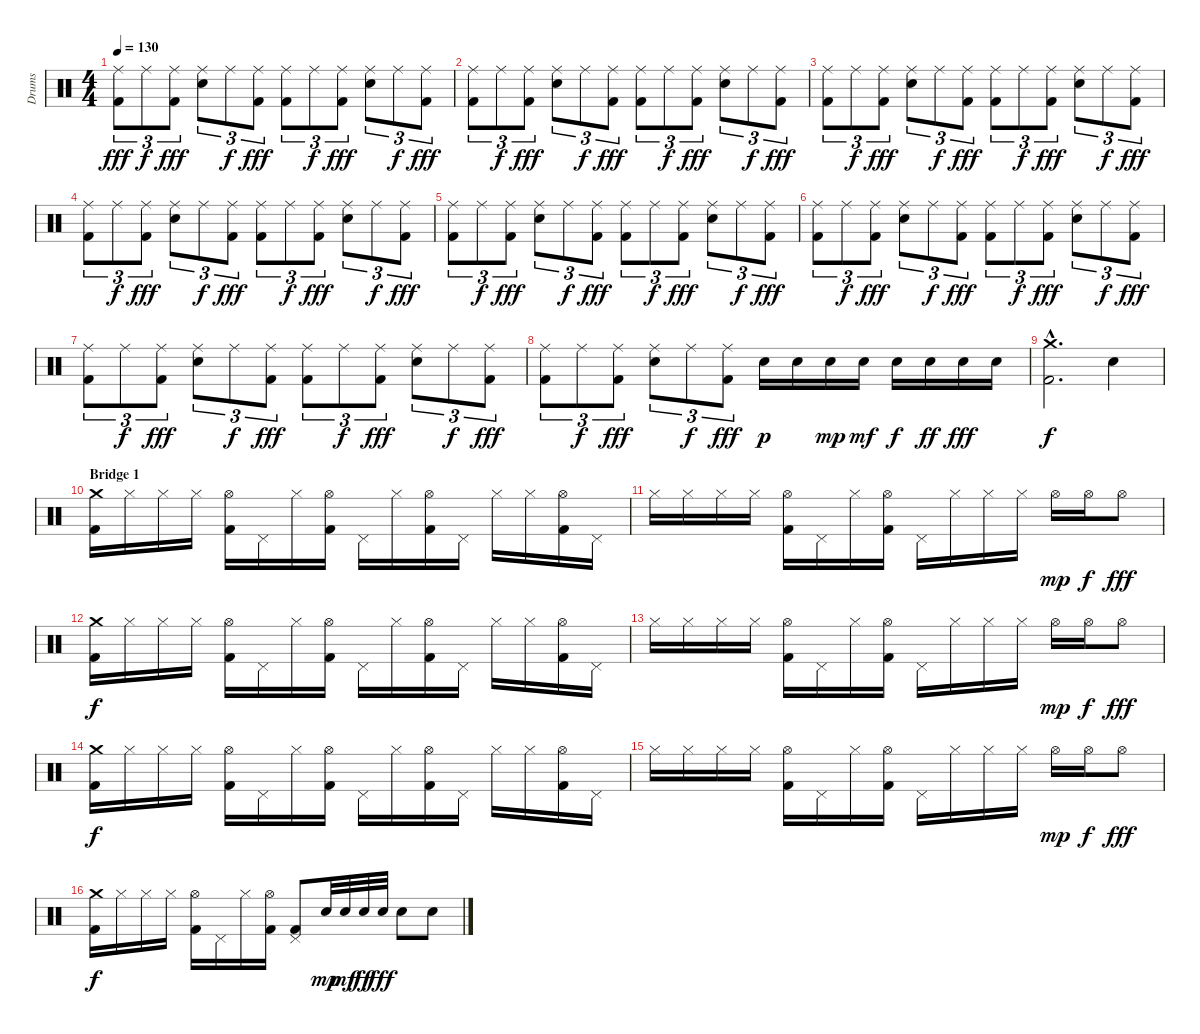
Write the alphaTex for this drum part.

\track ("Drums" "Drums") {instrument percussion}
\staff {score}
\articulation defaults
\ts (4 4)
\tempo 130
\clef neutral
\ks c
("Ride (middle)" "Kick (hit) 2").8{tu (3 2) dy fff} "Ride (middle)".8{tu (3 2) dy f} ("Ride (middle)" "Kick (hit) 2").8{tu (3 2) dy fff} ("Ride (middle)" "Snare (hit) 2").8{tu (3 2)} "Ride (middle)".8{tu (3 2) dy f} ("Ride (middle)" "Kick (hit) 2").8{tu (3 2) dy fff} ("Ride (middle)" "Kick (hit) 2").8{tu (3 2)} "Ride (middle)".8{tu (3 2) dy f} ("Ride (middle)" "Kick (hit) 2").8{tu (3 2) dy fff} ("Ride (middle)" "Snare (hit) 2").8{tu (3 2)} "Ride (middle)".8{tu (3 2) dy f} ("Ride (middle)" "Kick (hit) 2").8{tu (3 2) dy fff} |
("Ride (middle)" "Kick (hit) 2").8{tu (3 2)} "Ride (middle)".8{tu (3 2) dy f} ("Ride (middle)" "Kick (hit) 2").8{tu (3 2) dy fff} ("Ride (middle)" "Snare (hit) 2").8{tu (3 2)} "Ride (middle)".8{tu (3 2) dy f} ("Ride (middle)" "Kick (hit) 2").8{tu (3 2) dy fff} ("Ride (middle)" "Kick (hit) 2").8{tu (3 2)} "Ride (middle)".8{tu (3 2) dy f} ("Ride (middle)" "Kick (hit) 2").8{tu (3 2) dy fff} ("Ride (middle)" "Snare (hit) 2").8{tu (3 2)} "Ride (middle)".8{tu (3 2) dy f} ("Ride (middle)" "Kick (hit) 2").8{tu (3 2) dy fff} |
("Ride (middle)" "Kick (hit) 2").8{tu (3 2)} "Ride (middle)".8{tu (3 2) dy f} ("Ride (middle)" "Kick (hit) 2").8{tu (3 2) dy fff} ("Ride (middle)" "Snare (hit) 2").8{tu (3 2)} "Ride (middle)".8{tu (3 2) dy f} ("Ride (middle)" "Kick (hit) 2").8{tu (3 2) dy fff} ("Ride (middle)" "Kick (hit) 2").8{tu (3 2)} "Ride (middle)".8{tu (3 2) dy f} ("Ride (middle)" "Kick (hit) 2").8{tu (3 2) dy fff} ("Ride (middle)" "Snare (hit) 2").8{tu (3 2)} "Ride (middle)".8{tu (3 2) dy f} ("Ride (middle)" "Kick (hit) 2").8{tu (3 2) dy fff} |
("Ride (middle)" "Kick (hit) 2").8{tu (3 2)} "Ride (middle)".8{tu (3 2) dy f} ("Ride (middle)" "Kick (hit) 2").8{tu (3 2) dy fff} ("Ride (middle)" "Snare (hit) 2").8{tu (3 2)} "Ride (middle)".8{tu (3 2) dy f} ("Ride (middle)" "Kick (hit) 2").8{tu (3 2) dy fff} ("Ride (middle)" "Kick (hit) 2").8{tu (3 2)} "Ride (middle)".8{tu (3 2) dy f} ("Ride (middle)" "Kick (hit) 2").8{tu (3 2) dy fff} ("Ride (middle)" "Snare (hit) 2").8{tu (3 2)} "Ride (middle)".8{tu (3 2) dy f} ("Ride (middle)" "Kick (hit) 2").8{tu (3 2) dy fff} |
("Ride (middle)" "Kick (hit) 2").8{tu (3 2)} "Ride (middle)".8{tu (3 2) dy f} ("Ride (middle)" "Kick (hit) 2").8{tu (3 2) dy fff} ("Ride (middle)" "Snare (hit) 2").8{tu (3 2)} "Ride (middle)".8{tu (3 2) dy f} ("Ride (middle)" "Kick (hit) 2").8{tu (3 2) dy fff} ("Ride (middle)" "Kick (hit) 2").8{tu (3 2)} "Ride (middle)".8{tu (3 2) dy f} ("Ride (middle)" "Kick (hit) 2").8{tu (3 2) dy fff} ("Ride (middle)" "Snare (hit) 2").8{tu (3 2)} "Ride (middle)".8{tu (3 2) dy f} ("Ride (middle)" "Kick (hit) 2").8{tu (3 2) dy fff} |
("Ride (middle)" "Kick (hit) 2").8{tu (3 2)} "Ride (middle)".8{tu (3 2) dy f} ("Ride (middle)" "Kick (hit) 2").8{tu (3 2) dy fff} ("Ride (middle)" "Snare (hit) 2").8{tu (3 2)} "Ride (middle)".8{tu (3 2) dy f} ("Ride (middle)" "Kick (hit) 2").8{tu (3 2) dy fff} ("Ride (middle)" "Kick (hit) 2").8{tu (3 2)} "Ride (middle)".8{tu (3 2) dy f} ("Ride (middle)" "Kick (hit) 2").8{tu (3 2) dy fff} ("Ride (middle)" "Snare (hit) 2").8{tu (3 2)} "Ride (middle)".8{tu (3 2) dy f} ("Ride (middle)" "Kick (hit) 2").8{tu (3 2) dy fff} |
("Ride (middle)" "Kick (hit) 2").8{tu (3 2)} "Ride (middle)".8{tu (3 2) dy f} ("Ride (middle)" "Kick (hit) 2").8{tu (3 2) dy fff} ("Ride (middle)" "Snare (hit) 2").8{tu (3 2)} "Ride (middle)".8{tu (3 2) dy f} ("Ride (middle)" "Kick (hit) 2").8{tu (3 2) dy fff} ("Ride (middle)" "Kick (hit) 2").8{tu (3 2)} "Ride (middle)".8{tu (3 2) dy f} ("Ride (middle)" "Kick (hit) 2").8{tu (3 2) dy fff} ("Ride (middle)" "Snare (hit) 2").8{tu (3 2)} "Ride (middle)".8{tu (3 2) dy f} ("Ride (middle)" "Kick (hit) 2").8{tu (3 2) dy fff} |
("Ride (middle)" "Kick (hit) 2").8{tu (3 2)} "Ride (middle)".8{tu (3 2) dy f} ("Ride (middle)" "Kick (hit) 2").8{tu (3 2) dy fff} ("Ride (middle)" "Snare (hit) 2").8{tu (3 2)} "Ride (middle)".8{tu (3 2) dy f} ("Ride (middle)" "Kick (hit) 2").8{tu (3 2) dy fff} "Snare (hit) 2".16{dy p} "Snare (hit) 2".16 "Snare (hit) 2".16{dy mp} "Snare (hit) 2".16{dy mf} "Snare (hit) 2".16{dy f} "Snare (hit) 2".16{dy ff} "Snare (hit) 2".16{dy fff} "Snare (hit) 2".16 |
("Crash medium (hit)"{hac} "Kick (hit) 2"{hac}).2{d dy f} "Snare (hit) 2".4 |
\section ("" "Bridge 1")
("Crash medium (hit)" "Kick (hit) 2").16 "Hi-Hat (closed)".16 "Hi-Hat (closed)".16 "Hi-Hat (closed)".16 ("Hi-Hat (open)" "Kick (hit) 2").16 "Pedal Hi-Hat (hit)".16 "Hi-Hat (closed)".16 ("Hi-Hat (open)" "Kick (hit) 2").16 "Pedal Hi-Hat (hit)".16 "Hi-Hat (closed)".16 ("Hi-Hat (open)" "Kick (hit) 2").16 "Pedal Hi-Hat (hit)".16 "Hi-Hat (closed)".16 "Hi-Hat (closed)".16 ("Hi-Hat (open)" "Kick (hit) 2").16 "Pedal Hi-Hat (hit)".16 |
"Hi-Hat (closed)".16 "Hi-Hat (closed)".16 "Hi-Hat (closed)".16 "Hi-Hat (closed)".16 ("Hi-Hat (open)" "Kick (hit) 2").16 "Pedal Hi-Hat (hit)".16 "Hi-Hat (closed)".16 ("Hi-Hat (open)" "Kick (hit) 2").16 "Pedal Hi-Hat (hit)".16 "Hi-Hat (closed)".16 "Hi-Hat (closed)".16 "Hi-Hat (closed)".16 "Hi-Hat (open)".16{dy mp} "Hi-Hat (open)".16{dy f} "Hi-Hat (open)".8{dy fff} |
("Crash medium (hit)" "Kick (hit) 2").16{dy f} "Hi-Hat (closed)".16 "Hi-Hat (closed)".16 "Hi-Hat (closed)".16 ("Hi-Hat (open)" "Kick (hit) 2").16 "Pedal Hi-Hat (hit)".16 "Hi-Hat (closed)".16 ("Hi-Hat (open)" "Kick (hit) 2").16 "Pedal Hi-Hat (hit)".16 "Hi-Hat (closed)".16 ("Hi-Hat (open)" "Kick (hit) 2").16 "Pedal Hi-Hat (hit)".16 "Hi-Hat (closed)".16 "Hi-Hat (closed)".16 ("Hi-Hat (open)" "Kick (hit) 2").16 "Pedal Hi-Hat (hit)".16 |
"Hi-Hat (closed)".16 "Hi-Hat (closed)".16 "Hi-Hat (closed)".16 "Hi-Hat (closed)".16 ("Hi-Hat (open)" "Kick (hit) 2").16 "Pedal Hi-Hat (hit)".16 "Hi-Hat (closed)".16 ("Hi-Hat (open)" "Kick (hit) 2").16 "Pedal Hi-Hat (hit)".16 "Hi-Hat (closed)".16 "Hi-Hat (closed)".16 "Hi-Hat (closed)".16 "Hi-Hat (open)".16{dy mp} "Hi-Hat (open)".16{dy f} "Hi-Hat (open)".8{dy fff} |
("Crash medium (hit)" "Kick (hit) 2").16{dy f} "Hi-Hat (closed)".16 "Hi-Hat (closed)".16 "Hi-Hat (closed)".16 ("Hi-Hat (open)" "Kick (hit) 2").16 "Pedal Hi-Hat (hit)".16 "Hi-Hat (closed)".16 ("Hi-Hat (open)" "Kick (hit) 2").16 "Pedal Hi-Hat (hit)".16 "Hi-Hat (closed)".16 ("Hi-Hat (open)" "Kick (hit) 2").16 "Pedal Hi-Hat (hit)".16 "Hi-Hat (closed)".16 "Hi-Hat (closed)".16 ("Hi-Hat (open)" "Kick (hit) 2").16 "Pedal Hi-Hat (hit)".16 |
"Hi-Hat (closed)".16 "Hi-Hat (closed)".16 "Hi-Hat (closed)".16 "Hi-Hat (closed)".16 ("Hi-Hat (open)" "Kick (hit) 2").16 "Pedal Hi-Hat (hit)".16 "Hi-Hat (closed)".16 ("Hi-Hat (open)" "Kick (hit) 2").16 "Pedal Hi-Hat (hit)".16 "Hi-Hat (closed)".16 "Hi-Hat (closed)".16 "Hi-Hat (closed)".16 "Hi-Hat (open)".16{dy mp} "Hi-Hat (open)".16{dy f} "Hi-Hat (open)".8{dy fff} |
("Crash medium (hit)" "Kick (hit) 2").16{dy f} "Hi-Hat (closed)".16 "Hi-Hat (closed)".16 "Hi-Hat (closed)".16 ("Hi-Hat (open)" "Kick (hit) 2").16 "Pedal Hi-Hat (hit)".16 "Hi-Hat (closed)".16 ("Hi-Hat (open)" "Kick (hit) 2").16 ("Pedal Hi-Hat (hit)" "Kick (hit) 2").8 "Snare (hit) 2".32{dy mp} "Snare (hit) 2".32{dy mf} "Snare (hit) 2".32{dy ff} "Snare (hit) 2".32{dy fff} "Snare (hit) 2".8 "Snare (hit) 2".8
